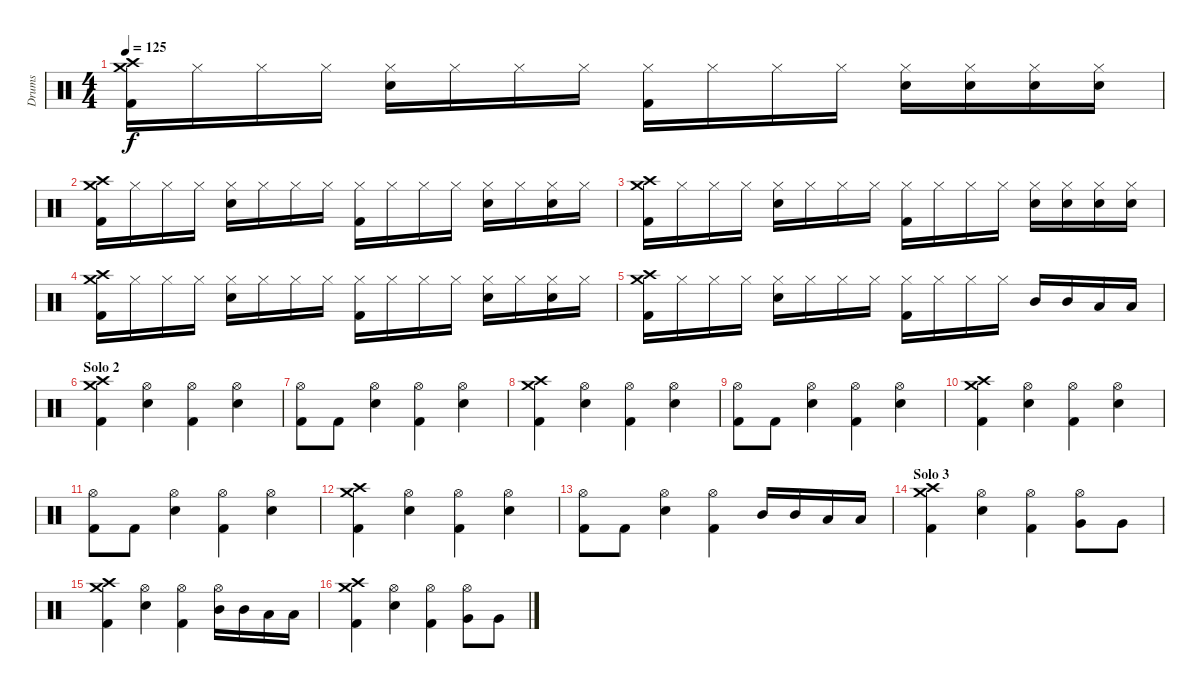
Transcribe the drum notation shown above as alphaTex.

\track ("Drums" "Drums") {instrument percussion}
\staff {score}
\articulation defaults
\ts (4 4)
\tempo 125
\clef neutral
\ks c
("Crash medium (hit)" "Crash high (hit)" "Kick (hit) 2").16{dy f} "Hi-Hat (closed)".16 "Hi-Hat (closed)".16 "Hi-Hat (closed)".16 ("Hi-Hat (closed)" "Snare (hit) 2").16 "Hi-Hat (closed)".16 "Hi-Hat (closed)".16 "Hi-Hat (closed)".16 ("Hi-Hat (closed)" "Kick (hit) 2").16 "Hi-Hat (closed)".16 "Hi-Hat (closed)".16 "Hi-Hat (closed)".16 ("Hi-Hat (closed)" "Snare (hit) 2").16 ("Hi-Hat (closed)" "Snare (hit) 2").16 ("Hi-Hat (closed)" "Snare (hit) 2").16 ("Hi-Hat (closed)" "Snare (hit) 2").16 |
("Crash medium (hit)" "Crash high (hit)" "Kick (hit) 2").16 "Hi-Hat (closed)".16 "Hi-Hat (closed)".16 "Hi-Hat (closed)".16 ("Hi-Hat (closed)" "Snare (hit) 2").16 "Hi-Hat (closed)".16 "Hi-Hat (closed)".16 "Hi-Hat (closed)".16 ("Hi-Hat (closed)" "Kick (hit) 2").16 "Hi-Hat (closed)".16 "Hi-Hat (closed)".16 "Hi-Hat (closed)".16 ("Hi-Hat (closed)" "Snare (hit) 2").16 "Hi-Hat (closed)".16 ("Hi-Hat (closed)" "Snare (hit) 2").16 "Hi-Hat (closed)".16 |
("Crash medium (hit)" "Crash high (hit)" "Kick (hit) 2").16 "Hi-Hat (closed)".16 "Hi-Hat (closed)".16 "Hi-Hat (closed)".16 ("Hi-Hat (closed)" "Snare (hit) 2").16 "Hi-Hat (closed)".16 "Hi-Hat (closed)".16 "Hi-Hat (closed)".16 ("Hi-Hat (closed)" "Kick (hit) 2").16 "Hi-Hat (closed)".16 "Hi-Hat (closed)".16 "Hi-Hat (closed)".16 ("Hi-Hat (closed)" "Snare (hit) 2").16 ("Hi-Hat (closed)" "Snare (hit) 2").16 ("Hi-Hat (closed)" "Snare (hit) 2").16 ("Hi-Hat (closed)" "Snare (hit) 2").16 |
("Crash medium (hit)" "Crash high (hit)" "Kick (hit) 2").16 "Hi-Hat (closed)".16 "Hi-Hat (closed)".16 "Hi-Hat (closed)".16 ("Hi-Hat (closed)" "Snare (hit) 2").16 "Hi-Hat (closed)".16 "Hi-Hat (closed)".16 "Hi-Hat (closed)".16 ("Hi-Hat (closed)" "Kick (hit) 2").16 "Hi-Hat (closed)".16 "Hi-Hat (closed)".16 "Hi-Hat (closed)".16 ("Hi-Hat (closed)" "Snare (hit) 2").16 "Hi-Hat (closed)".16 ("Hi-Hat (closed)" "Snare (hit) 2").16 "Hi-Hat (closed)".16 |
("Crash medium (hit)" "Crash high (hit)" "Kick (hit) 2").16 "Hi-Hat (closed)".16 "Hi-Hat (closed)".16 "Hi-Hat (closed)".16 ("Hi-Hat (closed)" "Snare (hit) 2").16 "Hi-Hat (closed)".16 "Hi-Hat (closed)".16 "Hi-Hat (closed)".16 ("Hi-Hat (closed)" "Kick (hit) 2").16 "Hi-Hat (closed)".16 "Hi-Hat (closed)".16 "Hi-Hat (closed)".16 "Mid Tom (hit)".16 "Mid Tom (hit)".16 "Low Tom (hit)".16 "Low Tom (hit)".16 |
\section ("" "Solo 2")
("Crash medium (hit)" "Crash high (hit)" "Kick (hit) 2").4 ("Hi-Hat (open)" "Snare (hit) 2").4 ("Hi-Hat (open)" "Kick (hit) 2").4 ("Hi-Hat (open)" "Snare (hit) 2").4 |
("Hi-Hat (open)" "Kick (hit) 2").8 "Kick (hit) 2".8 ("Hi-Hat (open)" "Snare (hit) 2").4 ("Hi-Hat (open)" "Kick (hit) 2").4 ("Hi-Hat (open)" "Snare (hit) 2").4 |
("Crash medium (hit)" "Crash high (hit)" "Kick (hit) 2").4 ("Hi-Hat (open)" "Snare (hit) 2").4 ("Hi-Hat (open)" "Kick (hit) 2").4 ("Hi-Hat (open)" "Snare (hit) 2").4 |
("Hi-Hat (open)" "Kick (hit) 2").8 "Kick (hit) 2".8 ("Hi-Hat (open)" "Snare (hit) 2").4 ("Hi-Hat (open)" "Kick (hit) 2").4 ("Hi-Hat (open)" "Snare (hit) 2").4 |
("Crash medium (hit)" "Crash high (hit)" "Kick (hit) 2").4 ("Hi-Hat (open)" "Snare (hit) 2").4 ("Hi-Hat (open)" "Kick (hit) 2").4 ("Hi-Hat (open)" "Snare (hit) 2").4 |
("Hi-Hat (open)" "Kick (hit) 2").8 "Kick (hit) 2".8 ("Hi-Hat (open)" "Snare (hit) 2").4 ("Hi-Hat (open)" "Kick (hit) 2").4 ("Hi-Hat (open)" "Snare (hit) 2").4 |
("Crash medium (hit)" "Crash high (hit)" "Kick (hit) 2").4 ("Hi-Hat (open)" "Snare (hit) 2").4 ("Hi-Hat (open)" "Kick (hit) 2").4 ("Hi-Hat (open)" "Snare (hit) 2").4 |
("Hi-Hat (open)" "Kick (hit) 2").8 "Kick (hit) 2".8 ("Hi-Hat (open)" "Snare (hit) 2").4 ("Hi-Hat (open)" "Kick (hit) 2").4 "Mid Tom (hit)".16 "Mid Tom (hit)".16 "Low Tom (hit)".16 "Low Tom (hit)".16 |
\section ("" "Solo 3")
("Crash medium (hit)" "Crash high (hit)" "Kick (hit) 2").4 ("Hi-Hat (open)" "Snare (hit) 2").4 ("Hi-Hat (open)" "Kick (hit) 2").4 ("Hi-Hat (open)" "Very Low Tom (hit)").8 "Very Low Tom (hit)".8 |
("Crash medium (hit)" "Crash high (hit)" "Kick (hit) 2").4 ("Hi-Hat (open)" "Snare (hit) 2").4 ("Hi-Hat (open)" "Kick (hit) 2").4 ("Hi-Hat (open)" "Mid Tom (hit)").16 "Mid Tom (hit)".16 "Low Tom (hit)".16 "Low Tom (hit)".16 |
("Crash medium (hit)" "Crash high (hit)" "Kick (hit) 2").4 ("Hi-Hat (open)" "Snare (hit) 2").4 ("Hi-Hat (open)" "Kick (hit) 2").4 ("Hi-Hat (open)" "Very Low Tom (hit)").8 "Very Low Tom (hit)".8
